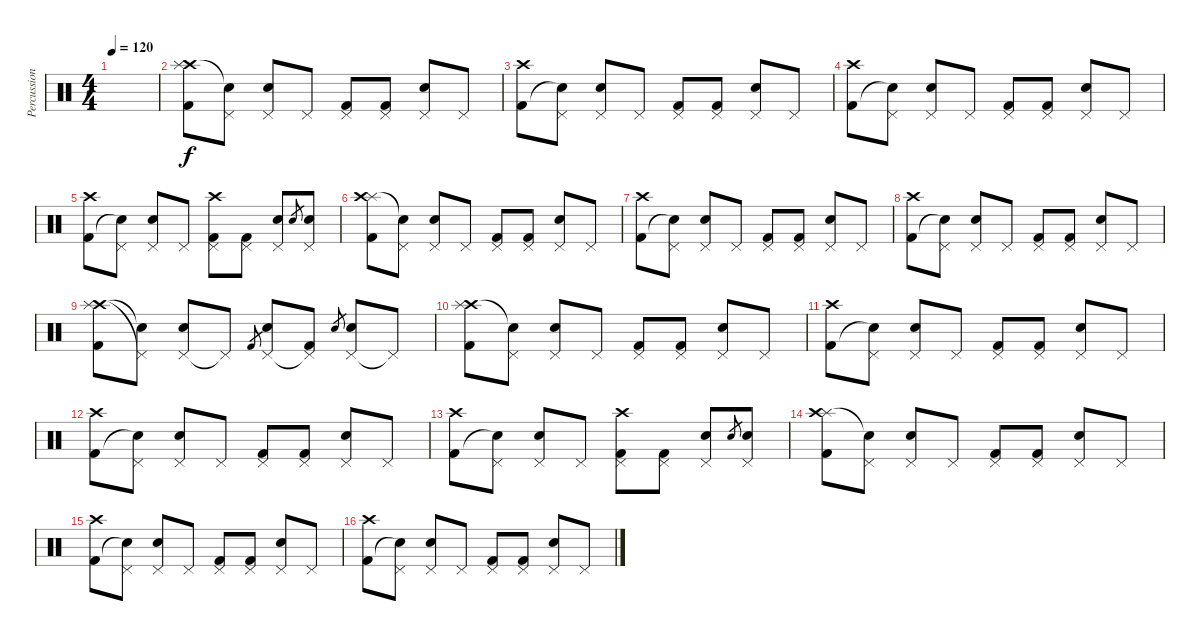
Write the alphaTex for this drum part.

\track ("Percussion" "Percussion") {instrument percussion}
\staff {score}
\articulation defaults
\ts (4 4)
\tempo 120
\clef neutral
\ks c
|
("Crash high (hit)" "Splash (hit)" "Kick (hit) 2").8 ("Pedal Hi-Hat (hit)" "Snare (hit)"{t}).8 ("Pedal Hi-Hat (hit)" "Electric Snare (hit)").8 "Pedal Hi-Hat (hit)".8 ("Pedal Hi-Hat (hit)" "Kick (hit) 2").8 ("Pedal Hi-Hat (hit)" "Kick (hit) 2").8 ("Pedal Hi-Hat (hit)" "Electric Snare (hit)").8 "Pedal Hi-Hat (hit)".8 |
("Crash high (hit)" "Kick (hit) 2").8 ("Pedal Hi-Hat (hit)" "Snare (hit)"{t}).8 ("Pedal Hi-Hat (hit)" "Electric Snare (hit)").8 "Pedal Hi-Hat (hit)".8 ("Pedal Hi-Hat (hit)" "Kick (hit) 2").8 ("Pedal Hi-Hat (hit)" "Kick (hit) 2").8 ("Pedal Hi-Hat (hit)" "Electric Snare (hit)").8 "Pedal Hi-Hat (hit)".8 |
("Crash high (hit)" "Kick (hit) 2").8 ("Pedal Hi-Hat (hit)" "Snare (hit)"{t}).8 ("Pedal Hi-Hat (hit)" "Electric Snare (hit)").8 "Pedal Hi-Hat (hit)".8 ("Pedal Hi-Hat (hit)" "Kick (hit) 2").8 ("Pedal Hi-Hat (hit)" "Kick (hit) 2").8 ("Pedal Hi-Hat (hit)" "Electric Snare (hit)").8 "Pedal Hi-Hat (hit)".8 |
("Crash high (hit)" "Kick (hit) 2").8 ("Pedal Hi-Hat (hit)" "Snare (hit)"{t}).8 ("Pedal Hi-Hat (hit)" "Electric Snare (hit)").8 "Pedal Hi-Hat (hit)".8 ("Crash high (hit)" "Pedal Hi-Hat (hit)" "Kick (hit) 2").8 ("Pedal Hi-Hat (hit)" "Kick (hit) 2").8 ("Pedal Hi-Hat (hit)" "Electric Snare (hit)").8 "Electric Snare (hit)".8{gr} ("Pedal Hi-Hat (hit)" "Electric Snare (hit)").8 |
("Splash (hit)" "Crash high (hit)" "Kick (hit) 2").8 ("Pedal Hi-Hat (hit)" "Snare (hit)"{t}).8 ("Pedal Hi-Hat (hit)" "Electric Snare (hit)").8 "Pedal Hi-Hat (hit)".8 ("Pedal Hi-Hat (hit)" "Kick (hit) 2").8 ("Pedal Hi-Hat (hit)" "Kick (hit) 2").8 ("Pedal Hi-Hat (hit)" "Electric Snare (hit)").8 "Pedal Hi-Hat (hit)".8 |
("Crash high (hit)" "Kick (hit) 2").8 ("Pedal Hi-Hat (hit)" "Snare (hit)"{t}).8 ("Pedal Hi-Hat (hit)" "Electric Snare (hit)").8 "Pedal Hi-Hat (hit)".8 ("Pedal Hi-Hat (hit)" "Kick (hit) 2").8 ("Pedal Hi-Hat (hit)" "Kick (hit) 2").8 ("Pedal Hi-Hat (hit)" "Electric Snare (hit)").8 "Pedal Hi-Hat (hit)".8 |
("Crash high (hit)" "Kick (hit) 2").8 ("Pedal Hi-Hat (hit)" "Snare (hit)"{t}).8 ("Pedal Hi-Hat (hit)" "Electric Snare (hit)").8 "Pedal Hi-Hat (hit)".8 ("Pedal Hi-Hat (hit)" "Kick (hit) 2").8 ("Pedal Hi-Hat (hit)" "Kick (hit) 2").8 ("Pedal Hi-Hat (hit)" "Electric Snare (hit)").8 "Pedal Hi-Hat (hit)".8 |
("Crash high (hit)" "Splash (hit)" "Kick (hit) 2").8 ("Pedal Hi-Hat (hit)"{t} "Snare (hit)"{t}).8 ("Pedal Hi-Hat (hit)" "Electric Snare (hit)").8 "Pedal Hi-Hat (hit)"{t}.8 "Kick (hit) 2".8{gr} ("Pedal Hi-Hat (hit)" "Electric Snare (hit)").8 ("Pedal Hi-Hat (hit)"{t} "Kick (hit) 2").8 "Electric Snare (hit)".8{gr} ("Pedal Hi-Hat (hit)" "Electric Snare (hit)").8 "Pedal Hi-Hat (hit)"{t}.8 |
("Crash high (hit)" "Splash (hit)" "Kick (hit) 2").8 ("Pedal Hi-Hat (hit)" "Snare (hit)"{t}).8 ("Pedal Hi-Hat (hit)" "Electric Snare (hit)").8 "Pedal Hi-Hat (hit)".8 ("Pedal Hi-Hat (hit)" "Kick (hit) 2").8 ("Pedal Hi-Hat (hit)" "Kick (hit) 2").8 ("Pedal Hi-Hat (hit)" "Electric Snare (hit)").8 "Pedal Hi-Hat (hit)".8 |
("Crash high (hit)" "Kick (hit) 2").8 ("Pedal Hi-Hat (hit)" "Snare (hit)"{t}).8 ("Pedal Hi-Hat (hit)" "Electric Snare (hit)").8 "Pedal Hi-Hat (hit)".8 ("Pedal Hi-Hat (hit)" "Kick (hit) 2").8 ("Pedal Hi-Hat (hit)" "Kick (hit) 2").8 ("Pedal Hi-Hat (hit)" "Electric Snare (hit)").8 "Pedal Hi-Hat (hit)".8 |
("Crash high (hit)" "Kick (hit) 2").8 ("Pedal Hi-Hat (hit)" "Snare (hit)"{t}).8 ("Pedal Hi-Hat (hit)" "Electric Snare (hit)").8 "Pedal Hi-Hat (hit)".8 ("Pedal Hi-Hat (hit)" "Kick (hit) 2").8 ("Pedal Hi-Hat (hit)" "Kick (hit) 2").8 ("Pedal Hi-Hat (hit)" "Electric Snare (hit)").8 "Pedal Hi-Hat (hit)".8 |
("Crash high (hit)" "Kick (hit) 2").8 ("Pedal Hi-Hat (hit)" "Snare (hit)"{t}).8 ("Pedal Hi-Hat (hit)" "Electric Snare (hit)").8 "Pedal Hi-Hat (hit)".8 ("Crash high (hit)" "Pedal Hi-Hat (hit)" "Kick (hit) 2").8 ("Pedal Hi-Hat (hit)" "Kick (hit) 2").8 ("Pedal Hi-Hat (hit)" "Electric Snare (hit)").8 "Electric Snare (hit)".8{gr} ("Pedal Hi-Hat (hit)" "Electric Snare (hit)").8 |
("Splash (hit)" "Crash high (hit)" "Kick (hit) 2").8 ("Pedal Hi-Hat (hit)" "Snare (hit)"{t}).8 ("Pedal Hi-Hat (hit)" "Electric Snare (hit)").8 "Pedal Hi-Hat (hit)".8 ("Pedal Hi-Hat (hit)" "Kick (hit) 2").8 ("Pedal Hi-Hat (hit)" "Kick (hit) 2").8 ("Pedal Hi-Hat (hit)" "Electric Snare (hit)").8 "Pedal Hi-Hat (hit)".8 |
("Crash high (hit)" "Kick (hit) 2").8 ("Pedal Hi-Hat (hit)" "Snare (hit)"{t}).8 ("Pedal Hi-Hat (hit)" "Electric Snare (hit)").8 "Pedal Hi-Hat (hit)".8 ("Pedal Hi-Hat (hit)" "Kick (hit) 2").8 ("Pedal Hi-Hat (hit)" "Kick (hit) 2").8 ("Pedal Hi-Hat (hit)" "Electric Snare (hit)").8 "Pedal Hi-Hat (hit)".8 |
("Crash high (hit)" "Kick (hit) 2").8 ("Pedal Hi-Hat (hit)" "Snare (hit)"{t}).8 ("Pedal Hi-Hat (hit)" "Electric Snare (hit)").8 "Pedal Hi-Hat (hit)".8 ("Pedal Hi-Hat (hit)" "Kick (hit) 2").8 ("Pedal Hi-Hat (hit)" "Kick (hit) 2").8 ("Pedal Hi-Hat (hit)" "Electric Snare (hit)").8 "Pedal Hi-Hat (hit)".8
